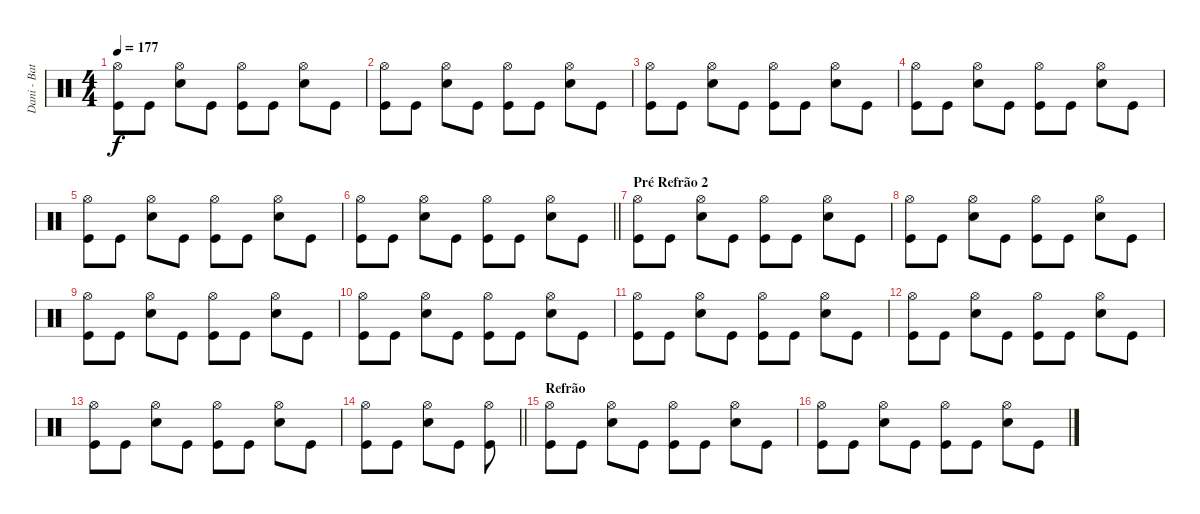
\track ("Dani - Bateria" "Dani - Bat") {instrument percussion}
\staff {score}
\articulation defaults
\ts (4 4)
\tempo 177
\clef neutral
\ks c
("Hi-Hat (open)" "Kick (hit)").8{dy f} "Kick (hit)".8 ("Hi-Hat (open)" "Electric Snare (hit)").8 "Kick (hit)".8 ("Hi-Hat (open)" "Kick (hit)").8 "Kick (hit)".8 ("Hi-Hat (open)" "Electric Snare (hit)").8 "Kick (hit)".8 |
("Hi-Hat (open)" "Kick (hit)").8 "Kick (hit)".8 ("Hi-Hat (open)" "Electric Snare (hit)").8 "Kick (hit)".8 ("Hi-Hat (open)" "Kick (hit)").8 "Kick (hit)".8 ("Hi-Hat (open)" "Electric Snare (hit)").8 "Kick (hit)".8 |
("Hi-Hat (open)" "Kick (hit)").8 "Kick (hit)".8 ("Hi-Hat (open)" "Electric Snare (hit)").8 "Kick (hit)".8 ("Hi-Hat (open)" "Kick (hit)").8 "Kick (hit)".8 ("Hi-Hat (open)" "Electric Snare (hit)").8 "Kick (hit)".8 |
("Hi-Hat (open)" "Kick (hit)").8 "Kick (hit)".8 ("Hi-Hat (open)" "Electric Snare (hit)").8 "Kick (hit)".8 ("Hi-Hat (open)" "Kick (hit)").8 "Kick (hit)".8 ("Hi-Hat (open)" "Electric Snare (hit)").8 "Kick (hit)".8 |
("Hi-Hat (open)" "Kick (hit)").8 "Kick (hit)".8 ("Hi-Hat (open)" "Electric Snare (hit)").8 "Kick (hit)".8 ("Hi-Hat (open)" "Kick (hit)").8 "Kick (hit)".8 ("Hi-Hat (open)" "Electric Snare (hit)").8 "Kick (hit)".8 |
\barLineRight lightlight
("Hi-Hat (open)" "Kick (hit)").8 "Kick (hit)".8 ("Hi-Hat (open)" "Electric Snare (hit)").8 "Kick (hit)".8 ("Hi-Hat (open)" "Kick (hit)").8 "Kick (hit)".8 ("Hi-Hat (open)" "Electric Snare (hit)").8 "Kick (hit)".8 |
\section ("" "Pré Refrão 2")
("Hi-Hat (open)" "Kick (hit)").8 "Kick (hit)".8 ("Hi-Hat (open)" "Electric Snare (hit)").8 "Kick (hit)".8 ("Hi-Hat (open)" "Kick (hit)").8 "Kick (hit)".8 ("Hi-Hat (open)" "Electric Snare (hit)").8 "Kick (hit)".8 |
("Hi-Hat (open)" "Kick (hit)").8 "Kick (hit)".8 ("Hi-Hat (open)" "Electric Snare (hit)").8 "Kick (hit)".8 ("Hi-Hat (open)" "Kick (hit)").8 "Kick (hit)".8 ("Hi-Hat (open)" "Electric Snare (hit)").8 "Kick (hit)".8 |
("Hi-Hat (open)" "Kick (hit)").8 "Kick (hit)".8 ("Hi-Hat (open)" "Electric Snare (hit)").8 "Kick (hit)".8 ("Hi-Hat (open)" "Kick (hit)").8 "Kick (hit)".8 ("Hi-Hat (open)" "Electric Snare (hit)").8 "Kick (hit)".8 |
("Hi-Hat (open)" "Kick (hit)").8 "Kick (hit)".8 ("Hi-Hat (open)" "Electric Snare (hit)").8 "Kick (hit)".8 ("Hi-Hat (open)" "Kick (hit)").8 "Kick (hit)".8 ("Hi-Hat (open)" "Electric Snare (hit)").8 "Kick (hit)".8 |
("Hi-Hat (open)" "Kick (hit)").8 "Kick (hit)".8 ("Hi-Hat (open)" "Electric Snare (hit)").8 "Kick (hit)".8 ("Hi-Hat (open)" "Kick (hit)").8 "Kick (hit)".8 ("Hi-Hat (open)" "Electric Snare (hit)").8 "Kick (hit)".8 |
("Hi-Hat (open)" "Kick (hit)").8 "Kick (hit)".8 ("Hi-Hat (open)" "Electric Snare (hit)").8 "Kick (hit)".8 ("Hi-Hat (open)" "Kick (hit)").8 "Kick (hit)".8 ("Hi-Hat (open)" "Electric Snare (hit)").8 "Kick (hit)".8 |
("Hi-Hat (open)" "Kick (hit)").8 "Kick (hit)".8 ("Hi-Hat (open)" "Electric Snare (hit)").8 "Kick (hit)".8 ("Hi-Hat (open)" "Kick (hit)").8 "Kick (hit)".8 ("Hi-Hat (open)" "Electric Snare (hit)").8 "Kick (hit)".8 |
\barLineRight lightlight
("Hi-Hat (open)" "Kick (hit)").8 "Kick (hit)".8 ("Hi-Hat (open)" "Electric Snare (hit)").8 "Kick (hit)".8 ("Hi-Hat (open)" "Kick (hit)").8 |
\section ("" "Refrão")
("Hi-Hat (open)" "Kick (hit)").8 "Kick (hit)".8 ("Hi-Hat (open)" "Electric Snare (hit)").8 "Kick (hit)".8 ("Hi-Hat (open)" "Kick (hit)").8 "Kick (hit)".8 ("Hi-Hat (open)" "Electric Snare (hit)").8 "Kick (hit)".8 |
("Hi-Hat (open)" "Kick (hit)").8 "Kick (hit)".8 ("Hi-Hat (open)" "Electric Snare (hit)").8 "Kick (hit)".8 ("Hi-Hat (open)" "Kick (hit)").8 "Kick (hit)".8 ("Hi-Hat (open)" "Electric Snare (hit)").8 "Kick (hit)".8
